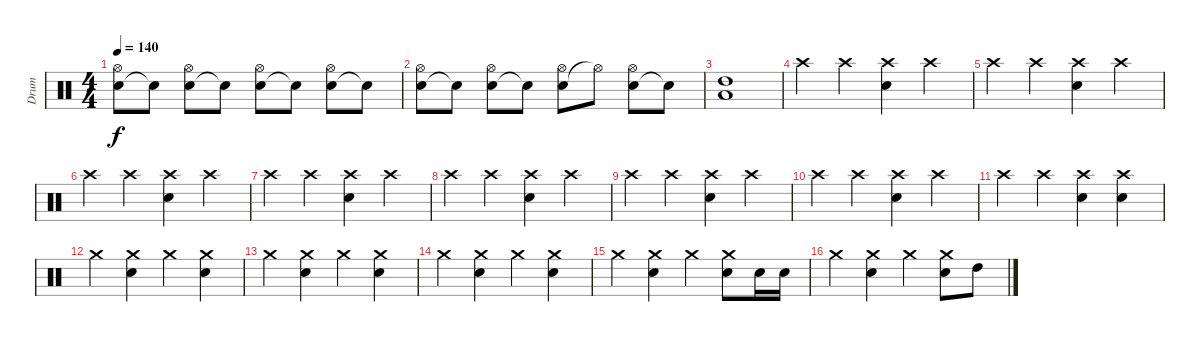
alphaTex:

\track ("Drum" "Drum") {instrument percussion}
\staff {score}
\articulation defaults
\ts (4 4)
\tempo 140
\clef neutral
\ks c
("Snare (hit) 2" "Hi-Hat (open)").8{dy f} "Snare (hit)"{t}.8 ("Snare (hit) 2" "Hi-Hat (open)").8 "Snare (hit)"{t}.8 ("Snare (hit) 2" "Hi-Hat (open)").8 "Snare (hit)"{t}.8 ("Snare (hit) 2" "Hi-Hat (open)").8 "Snare (hit)"{t}.8 |
("Snare (hit) 2" "Hi-Hat (open)").8 "Snare (hit)"{t}.8 ("Snare (hit) 2" "Hi-Hat (open)").8 "Snare (hit)"{t}.8 ("Snare (hit) 2" "Hi-Hat (open)").8 "Hi-Hat (open)"{t}.8 ("Snare (hit) 2" "Hi-Hat (open)").8 "Snare (hit)"{t}.8 |
("High Tom (hit)" "Low Tom (hit)").1 |
"Crash high (hit)".4 "Crash high (hit)".4 ("Crash high (hit)" "Snare (hit) 2").4 "Crash high (hit)".4 |
"Crash high (hit)".4 "Crash high (hit)".4 ("Crash high (hit)" "Snare (hit) 2").4 "Crash high (hit)".4 |
"Crash high (hit)".4 "Crash high (hit)".4 ("Crash high (hit)" "Snare (hit) 2").4 "Crash high (hit)".4 |
"Crash high (hit)".4 "Crash high (hit)".4 ("Crash high (hit)" "Snare (hit) 2").4 "Crash high (hit)".4 |
"Crash high (hit)".4 "Crash high (hit)".4 ("Crash high (hit)" "Snare (hit) 2").4 "Crash high (hit)".4 |
"Crash high (hit)".4 "Crash high (hit)".4 ("Crash high (hit)" "Snare (hit) 2").4 "Crash high (hit)".4 |
"Crash high (hit)".4 "Crash high (hit)".4 ("Crash high (hit)" "Snare (hit) 2").4 "Crash high (hit)".4 |
"Crash high (hit)".4 "Crash high (hit)".4 ("Crash high (hit)" "Snare (hit) 2").4 ("Crash high (hit)" "Snare (hit) 2").4 |
"Crash medium (hit)".4 ("Crash medium (hit)" "Snare (hit) 2").4 "Crash medium (hit)".4 ("Crash medium (hit)" "Snare (hit) 2").4 |
"Crash medium (hit)".4 ("Crash medium (hit)" "Snare (hit) 2").4 "Crash medium (hit)".4 ("Crash medium (hit)" "Snare (hit) 2").4 |
"Crash medium (hit)".4 ("Crash medium (hit)" "Snare (hit) 2").4 "Crash medium (hit)".4 ("Crash medium (hit)" "Snare (hit) 2").4 |
"Crash medium (hit)".4 ("Crash medium (hit)" "Snare (hit) 2").4 "Crash medium (hit)".4 ("Crash medium (hit)" "Snare (hit) 2").8 "Snare (hit) 2".16 "Snare (hit) 2".16 |
"Crash medium (hit)".4 ("Crash medium (hit)" "Snare (hit) 2").4 "Crash medium (hit)".4 ("Crash medium (hit)" "Snare (hit) 2").8 "High Tom (hit)".8
